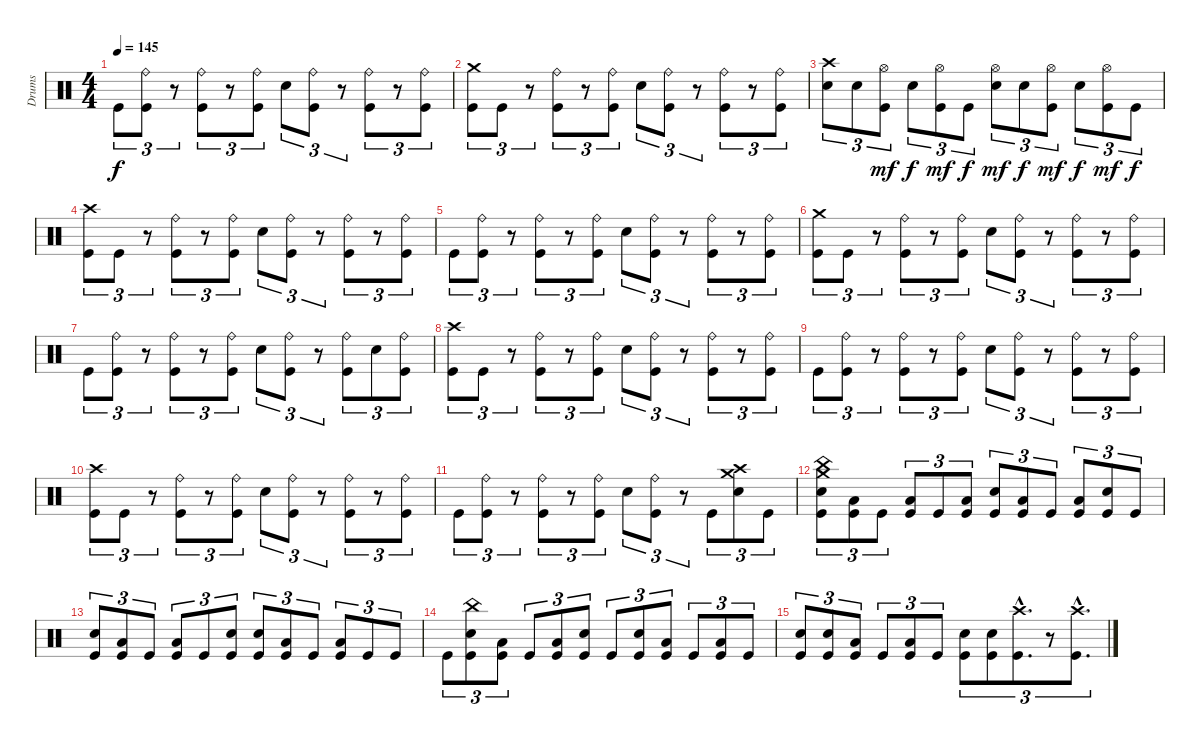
\track ("Drums" "Drums") {instrument percussion}
\staff {score}
\articulation defaults
\ts (4 4)
\tempo 145
\clef neutral
\ks c "Kick (hit)".8{tu (3 2) dy f}
("Ride (bell)" "Kick (hit)").8{tu (3 2)} r.8{tu (3 2)} ("Ride (bell)" "Kick (hit)").8{tu (3 2)} r.8{tu (3 2)} ("Ride (bell)" "Kick (hit)").8{tu (3 2)} "Electric Snare (hit)".8{tu (3 2)} ("Ride (bell)" "Kick (hit)").8{tu (3 2)} r.8{tu (3 2)} ("Ride (bell)" "Kick (hit)").8{tu (3 2)} r.8{tu (3 2)} ("Ride (bell)" "Kick (hit)").8{tu (3 2)} |
("Crash medium (hit)" "Kick (hit)").8{tu (3 2)} "Kick (hit)".8{tu (3 2)} r.8{tu (3 2)} ("Ride (bell)" "Kick (hit)").8{tu (3 2)} r.8{tu (3 2)} ("Ride (bell)" "Kick (hit)").8{tu (3 2)} "Electric Snare (hit)".8{tu (3 2)} ("Ride (bell)" "Kick (hit)").8{tu (3 2)} r.8{tu (3 2)} ("Ride (bell)" "Kick (hit)").8{tu (3 2)} r.8{tu (3 2)} ("Ride (bell)" "Kick (hit)").8{tu (3 2)} |
("Crash high (hit)" "Electric Snare (hit)").8{tu (3 2)} "Electric Snare (hit)".8{tu (3 2)} ("Hi-Hat (open)" "Kick (hit)").8{tu (3 2) dy mf} "Electric Snare (hit)".8{tu (3 2) dy f} ("Hi-Hat (open)" "Kick (hit)").8{tu (3 2) dy mf} "Kick (hit)".8{tu (3 2) dy f} ("Hi-Hat (open)" "Electric Snare (hit)").8{tu (3 2) dy mf} "Electric Snare (hit)".8{tu (3 2) dy f} ("Hi-Hat (open)" "Kick (hit)").8{tu (3 2) dy mf} "Electric Snare (hit)".8{tu (3 2) dy f} ("Hi-Hat (open)" "Kick (hit)").8{tu (3 2) dy mf} "Kick (hit)".8{tu (3 2) dy f} |
("Crash high (hit)" "Kick (hit)").8{tu (3 2)} "Kick (hit)".8{tu (3 2)} r.8{tu (3 2)} ("Ride (bell)" "Kick (hit)").8{tu (3 2)} r.8{tu (3 2)} ("Ride (bell)" "Kick (hit)").8{tu (3 2)} "Electric Snare (hit)".8{tu (3 2)} ("Ride (bell)" "Kick (hit)").8{tu (3 2)} r.8{tu (3 2)} ("Ride (bell)" "Kick (hit)").8{tu (3 2)} r.8{tu (3 2)} ("Ride (bell)" "Kick (hit)").8{tu (3 2)} |
"Kick (hit)".8{tu (3 2)} ("Ride (bell)" "Kick (hit)").8{tu (3 2)} r.8{tu (3 2)} ("Ride (bell)" "Kick (hit)").8{tu (3 2)} r.8{tu (3 2)} ("Ride (bell)" "Kick (hit)").8{tu (3 2)} "Electric Snare (hit)".8{tu (3 2)} ("Ride (bell)" "Kick (hit)").8{tu (3 2)} r.8{tu (3 2)} ("Ride (bell)" "Kick (hit)").8{tu (3 2)} r.8{tu (3 2)} ("Ride (bell)" "Kick (hit)").8{tu (3 2)} |
("Crash medium (hit)" "Kick (hit)").8{tu (3 2)} "Kick (hit)".8{tu (3 2)} r.8{tu (3 2)} ("Ride (bell)" "Kick (hit)").8{tu (3 2)} r.8{tu (3 2)} ("Ride (bell)" "Kick (hit)").8{tu (3 2)} "Electric Snare (hit)".8{tu (3 2)} ("Ride (bell)" "Kick (hit)").8{tu (3 2)} r.8{tu (3 2)} ("Ride (bell)" "Kick (hit)").8{tu (3 2)} r.8{tu (3 2)} ("Ride (bell)" "Kick (hit)").8{tu (3 2)} |
"Kick (hit)".8{tu (3 2)} ("Ride (bell)" "Kick (hit)").8{tu (3 2)} r.8{tu (3 2)} ("Ride (bell)" "Kick (hit)").8{tu (3 2)} r.8{tu (3 2)} ("Ride (bell)" "Kick (hit)").8{tu (3 2)} "Electric Snare (hit)".8{tu (3 2)} ("Ride (bell)" "Kick (hit)").8{tu (3 2)} r.8{tu (3 2)} ("Ride (bell)" "Kick (hit)").8{tu (3 2)} "Electric Snare (hit)".8{tu (3 2)} ("Ride (bell)" "Kick (hit)").8{tu (3 2)} |
("Crash high (hit)" "Kick (hit)").8{tu (3 2)} "Kick (hit)".8{tu (3 2)} r.8{tu (3 2)} ("Ride (bell)" "Kick (hit)").8{tu (3 2)} r.8{tu (3 2)} ("Ride (bell)" "Kick (hit)").8{tu (3 2)} "Electric Snare (hit)".8{tu (3 2)} ("Ride (bell)" "Kick (hit)").8{tu (3 2)} r.8{tu (3 2)} ("Ride (bell)" "Kick (hit)").8{tu (3 2)} r.8{tu (3 2)} ("Ride (bell)" "Kick (hit)").8{tu (3 2)} |
"Kick (hit)".8{tu (3 2)} ("Ride (bell)" "Kick (hit)").8{tu (3 2)} r.8{tu (3 2)} ("Ride (bell)" "Kick (hit)").8{tu (3 2)} r.8{tu (3 2)} ("Ride (bell)" "Kick (hit)").8{tu (3 2)} "Electric Snare (hit)".8{tu (3 2)} ("Ride (bell)" "Kick (hit)").8{tu (3 2)} r.8{tu (3 2)} ("Ride (bell)" "Kick (hit)").8{tu (3 2)} r.8{tu (3 2)} ("Ride (bell)" "Kick (hit)").8{tu (3 2)} |
("Crash high (hit)" "Kick (hit)").8{tu (3 2)} "Kick (hit)".8{tu (3 2)} r.8{tu (3 2)} ("Ride (bell)" "Kick (hit)").8{tu (3 2)} r.8{tu (3 2)} ("Ride (bell)" "Kick (hit)").8{tu (3 2)} "Electric Snare (hit)".8{tu (3 2)} ("Ride (bell)" "Kick (hit)").8{tu (3 2)} r.8{tu (3 2)} ("Ride (bell)" "Kick (hit)").8{tu (3 2)} r.8{tu (3 2)} ("Ride (bell)" "Kick (hit)").8{tu (3 2)} |
"Kick (hit)".8{tu (3 2)} ("Ride (bell)" "Kick (hit)").8{tu (3 2)} r.8{tu (3 2)} ("Ride (bell)" "Kick (hit)").8{tu (3 2)} r.8{tu (3 2)} ("Ride (bell)" "Kick (hit)").8{tu (3 2)} "Electric Snare (hit)".8{tu (3 2)} ("Ride (bell)" "Kick (hit)").8{tu (3 2)} r.8{tu (3 2)} "Kick (hit)".8{tu (3 2)} ("Crash high (hit)" "Crash medium (hit)" "Electric Snare (hit)").8{tu (3 2)} "Kick (hit)".8{tu (3 2)} |
("Crash medium (hit)" "China (hit)" "Electric Snare (hit)" "Kick (hit)").8{tu (3 2)} ("Low Tom (hit)" "Kick (hit)").8{tu (3 2)} "Kick (hit)".8{tu (3 2)} ("Low Tom (hit)" "Kick (hit)").8{tu (3 2)} "Kick (hit)".8{tu (3 2)} ("Low Tom (hit)" "Kick (hit)").8{tu (3 2)} ("Electric Snare (hit)" "Kick (hit)").8{tu (3 2)} ("Low Tom (hit)" "Kick (hit)").8{tu (3 2)} "Kick (hit)".8{tu (3 2)} ("Low Tom (hit)" "Kick (hit)").8{tu (3 2)} ("Electric Snare (hit)" "Kick (hit)").8{tu (3 2)} "Kick (hit)".8{tu (3 2)} |
("Electric Snare (hit)" "Kick (hit)").8{tu (3 2)} ("Low Tom (hit)" "Kick (hit)").8{tu (3 2)} "Kick (hit)".8{tu (3 2)} ("Low Tom (hit)" "Kick (hit)").8{tu (3 2)} "Kick (hit)".8{tu (3 2)} ("Electric Snare (hit)" "Kick (hit)").8{tu (3 2)} ("Electric Snare (hit)" "Kick (hit)").8{tu (3 2)} ("Low Tom (hit)" "Kick (hit)").8{tu (3 2)} "Kick (hit)".8{tu (3 2)} ("Low Tom (hit)" "Kick (hit)").8{tu (3 2)} "Kick (hit)".8{tu (3 2)} "Kick (hit)".8{tu (3 2)} |
"Kick (hit)".8{tu (3 2)} ("China (hit)" "Electric Snare (hit)" "Kick (hit)").8{tu (3 2)} ("Low Tom (hit)" "Kick (hit)").8{tu (3 2)} "Kick (hit)".8{tu (3 2)} ("Low Tom (hit)" "Kick (hit)").8{tu (3 2)} ("Electric Snare (hit)" "Kick (hit)").8{tu (3 2)} "Kick (hit)".8{tu (3 2)} ("Electric Snare (hit)" "Kick (hit)").8{tu (3 2)} ("Low Tom (hit)" "Kick (hit)").8{tu (3 2)} "Kick (hit)".8{tu (3 2)} ("Low Tom (hit)" "Kick (hit)").8{tu (3 2)} "Kick (hit)".8{tu (3 2)} |
("Electric Snare (hit)" "Kick (hit)").8{tu (3 2)} ("Electric Snare (hit)" "Kick (hit)").8{tu (3 2)} ("Low Tom (hit)" "Kick (hit)").8{tu (3 2)} "Kick (hit)".8{tu (3 2)} ("Low Tom (hit)" "Kick (hit)").8{tu (3 2)} "Kick (hit)".8{tu (3 2)} ("Electric Snare (hit)" "Kick (hit)").8{tu (3 2)} ("Electric Snare (hit)" "Kick (hit)").8{tu (3 2)} ("Crash high (hit)"{hac} "Kick (hit)"{hac}).8{d tu (3 2)} r.8{tu (3 2)} ("Crash high (hit)"{hac} "Kick (hit)"{hac}).8{d tu (3 2)}
